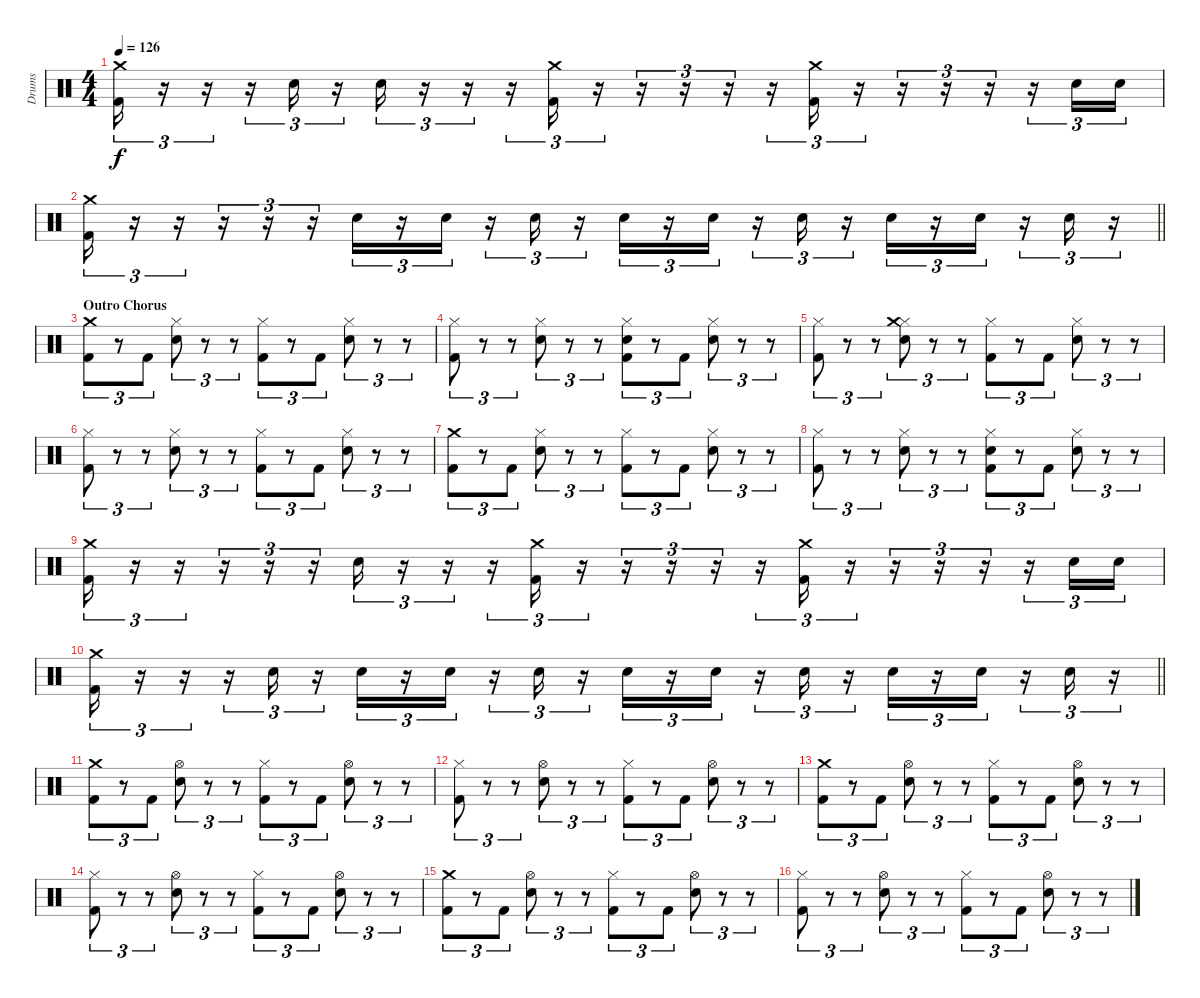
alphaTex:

\track ("Drums" "Drums") {instrument percussion}
\staff {score}
\articulation defaults
\ts (4 4)
\tempo 126
\clef neutral
\ks c
("Crash medium (hit)" "Kick (hit) 2").16{tu (3 2) dy f} r.16{tu (3 2)} r.16{tu (3 2)} r.16{tu (3 2)} "Snare (hit) 2".16{tu (3 2)} r.16{tu (3 2)} "Snare (hit) 2".16{tu (3 2)} r.16{tu (3 2)} r.16{tu (3 2)} r.16{tu (3 2)} ("Crash medium (hit)" "Kick (hit) 2").16{tu (3 2)} r.16{tu (3 2)} r.16{tu (3 2)} r.16{tu (3 2)} r.16{tu (3 2)} r.16{tu (3 2)} ("Crash medium (hit)" "Kick (hit) 2").16{tu (3 2)} r.16{tu (3 2)} r.16{tu (3 2)} r.16{tu (3 2)} r.16{tu (3 2)} r.16{tu (3 2)} "Snare (hit) 2".16{tu (3 2)} "Snare (hit) 2".16{tu (3 2)} |
\barLineRight lightlight
("Crash medium (hit)" "Kick (hit) 2").16{tu (3 2)} r.16{tu (3 2)} r.16{tu (3 2)} r.16{tu (3 2)} r.16{tu (3 2)} r.16{tu (3 2)} "Snare (hit) 2".16{tu (3 2)} r.16{tu (3 2)} "Snare (hit) 2".16{tu (3 2)} r.16{tu (3 2)} "Snare (hit) 2".16{tu (3 2)} r.16{tu (3 2)} "Snare (hit) 2".16{tu (3 2)} r.16{tu (3 2)} "Snare (hit) 2".16{tu (3 2)} r.16{tu (3 2)} "Snare (hit) 2".16{tu (3 2)} r.16{tu (3 2)} "Snare (hit) 2".16{tu (3 2)} r.16{tu (3 2)} "Snare (hit) 2".16{tu (3 2)} r.16{tu (3 2)} "Snare (hit) 2".16{tu (3 2)} r.16{tu (3 2)} |
\section ("" "Outro Chorus")
("Crash medium (hit)" "Kick (hit) 2").8{tu (3 2)} r.8{tu (3 2)} "Kick (hit) 2".8{tu (3 2)} ("Hi-Hat (closed)" "Snare (hit) 2").8{tu (3 2)} r.8{tu (3 2)} r.8{tu (3 2)} ("Hi-Hat (closed)" "Kick (hit) 2").8{tu (3 2)} r.8{tu (3 2)} "Kick (hit) 2".8{tu (3 2)} ("Hi-Hat (closed)" "Snare (hit) 2").8{tu (3 2)} r.8{tu (3 2)} r.8{tu (3 2)} |
("Hi-Hat (closed)" "Kick (hit) 2").8{tu (3 2)} r.8{tu (3 2)} r.8{tu (3 2)} ("Hi-Hat (closed)" "Snare (hit) 2").8{tu (3 2)} r.8{tu (3 2)} r.8{tu (3 2)} ("Hi-Hat (closed)" "Snare (hit) 2" "Kick (hit) 2").8{tu (3 2)} r.8{tu (3 2)} "Kick (hit) 2".8{tu (3 2)} ("Hi-Hat (closed)" "Snare (hit) 2").8{tu (3 2)} r.8{tu (3 2)} r.8{tu (3 2)} |
("Hi-Hat (closed)" "Kick (hit) 2").8{tu (3 2)} r.8{tu (3 2)} r.8{tu (3 2)} ("Hi-Hat (closed)" "Crash medium (hit)" "Snare (hit) 2").8{tu (3 2)} r.8{tu (3 2)} r.8{tu (3 2)} ("Hi-Hat (closed)" "Kick (hit) 2").8{tu (3 2)} r.8{tu (3 2)} "Kick (hit) 2".8{tu (3 2)} ("Hi-Hat (closed)" "Snare (hit) 2").8{tu (3 2)} r.8{tu (3 2)} r.8{tu (3 2)} |
("Hi-Hat (closed)" "Kick (hit) 2").8{tu (3 2)} r.8{tu (3 2)} r.8{tu (3 2)} ("Hi-Hat (closed)" "Snare (hit) 2").8{tu (3 2)} r.8{tu (3 2)} r.8{tu (3 2)} ("Hi-Hat (closed)" "Kick (hit) 2").8{tu (3 2)} r.8{tu (3 2)} "Kick (hit) 2".8{tu (3 2)} ("Hi-Hat (closed)" "Snare (hit) 2").8{tu (3 2)} r.8{tu (3 2)} r.8{tu (3 2)} |
("Crash medium (hit)" "Kick (hit) 2").8{tu (3 2)} r.8{tu (3 2)} "Kick (hit) 2".8{tu (3 2)} ("Hi-Hat (closed)" "Snare (hit) 2").8{tu (3 2)} r.8{tu (3 2)} r.8{tu (3 2)} ("Hi-Hat (closed)" "Kick (hit) 2").8{tu (3 2)} r.8{tu (3 2)} "Kick (hit) 2".8{tu (3 2)} ("Hi-Hat (closed)" "Snare (hit) 2").8{tu (3 2)} r.8{tu (3 2)} r.8{tu (3 2)} |
("Hi-Hat (closed)" "Kick (hit) 2").8{tu (3 2)} r.8{tu (3 2)} r.8{tu (3 2)} ("Hi-Hat (closed)" "Snare (hit) 2").8{tu (3 2)} r.8{tu (3 2)} r.8{tu (3 2)} ("Hi-Hat (closed)" "Snare (hit) 2" "Kick (hit) 2").8{tu (3 2)} r.8{tu (3 2)} "Kick (hit) 2".8{tu (3 2)} ("Hi-Hat (closed)" "Snare (hit) 2").8{tu (3 2)} r.8{tu (3 2)} r.8{tu (3 2)} |
("Crash medium (hit)" "Kick (hit) 2").16{tu (3 2)} r.16{tu (3 2)} r.16{tu (3 2)} r.16{tu (3 2)} r.16{tu (3 2)} r.16{tu (3 2)} "Snare (hit) 2".16{tu (3 2)} r.16{tu (3 2)} r.16{tu (3 2)} r.16{tu (3 2)} ("Crash medium (hit)" "Kick (hit) 2").16{tu (3 2)} r.16{tu (3 2)} r.16{tu (3 2)} r.16{tu (3 2)} r.16{tu (3 2)} r.16{tu (3 2)} ("Crash medium (hit)" "Kick (hit) 2").16{tu (3 2)} r.16{tu (3 2)} r.16{tu (3 2)} r.16{tu (3 2)} r.16{tu (3 2)} r.16{tu (3 2)} "Snare (hit) 2".16{tu (3 2)} "Snare (hit) 2".16{tu (3 2)} |
\barLineRight lightlight
("Crash medium (hit)" "Kick (hit) 2").16{tu (3 2)} r.16{tu (3 2)} r.16{tu (3 2)} r.16{tu (3 2)} "Snare (hit) 2".16{tu (3 2)} r.16{tu (3 2)} "Snare (hit) 2".16{tu (3 2)} r.16{tu (3 2)} "Snare (hit) 2".16{tu (3 2)} r.16{tu (3 2)} "Snare (hit) 2".16{tu (3 2)} r.16{tu (3 2)} "Snare (hit) 2".16{tu (3 2)} r.16{tu (3 2)} "Snare (hit) 2".16{tu (3 2)} r.16{tu (3 2)} "Snare (hit) 2".16{tu (3 2)} r.16{tu (3 2)} "Snare (hit) 2".16{tu (3 2)} r.16{tu (3 2)} "Snare (hit) 2".16{tu (3 2)} r.16{tu (3 2)} "Snare (hit) 2".16{tu (3 2)} r.16{tu (3 2)} |
("Crash medium (hit)" "Kick (hit) 2").8{tu (3 2)} r.8{tu (3 2)} "Kick (hit) 2".8{tu (3 2)} ("Hi-Hat (open)" "Snare (hit) 2").8{tu (3 2)} r.8{tu (3 2)} r.8{tu (3 2)} ("Hi-Hat (closed)" "Kick (hit) 2").8{tu (3 2)} r.8{tu (3 2)} "Kick (hit) 2".8{tu (3 2)} ("Hi-Hat (open)" "Snare (hit) 2").8{tu (3 2)} r.8{tu (3 2)} r.8{tu (3 2)} |
("Hi-Hat (closed)" "Kick (hit) 2").8{tu (3 2)} r.8{tu (3 2)} r.8{tu (3 2)} ("Hi-Hat (open)" "Snare (hit) 2").8{tu (3 2)} r.8{tu (3 2)} r.8{tu (3 2)} ("Hi-Hat (closed)" "Kick (hit) 2").8{tu (3 2)} r.8{tu (3 2)} "Kick (hit) 2".8{tu (3 2)} ("Hi-Hat (open)" "Snare (hit) 2").8{tu (3 2)} r.8{tu (3 2)} r.8{tu (3 2)} |
("Crash medium (hit)" "Kick (hit) 2").8{tu (3 2)} r.8{tu (3 2)} "Kick (hit) 2".8{tu (3 2)} ("Hi-Hat (open)" "Snare (hit) 2").8{tu (3 2)} r.8{tu (3 2)} r.8{tu (3 2)} ("Hi-Hat (closed)" "Kick (hit) 2").8{tu (3 2)} r.8{tu (3 2)} "Kick (hit) 2".8{tu (3 2)} ("Hi-Hat (open)" "Snare (hit) 2").8{tu (3 2)} r.8{tu (3 2)} r.8{tu (3 2)} |
("Hi-Hat (closed)" "Kick (hit) 2").8{tu (3 2)} r.8{tu (3 2)} r.8{tu (3 2)} ("Hi-Hat (open)" "Snare (hit) 2").8{tu (3 2)} r.8{tu (3 2)} r.8{tu (3 2)} ("Hi-Hat (closed)" "Kick (hit) 2").8{tu (3 2)} r.8{tu (3 2)} "Kick (hit) 2".8{tu (3 2)} ("Hi-Hat (open)" "Snare (hit) 2").8{tu (3 2)} r.8{tu (3 2)} r.8{tu (3 2)} |
("Crash medium (hit)" "Kick (hit) 2").8{tu (3 2)} r.8{tu (3 2)} "Kick (hit) 2".8{tu (3 2)} ("Hi-Hat (open)" "Snare (hit) 2").8{tu (3 2)} r.8{tu (3 2)} r.8{tu (3 2)} ("Hi-Hat (closed)" "Kick (hit) 2").8{tu (3 2)} r.8{tu (3 2)} "Kick (hit) 2".8{tu (3 2)} ("Hi-Hat (open)" "Snare (hit) 2").8{tu (3 2)} r.8{tu (3 2)} r.8{tu (3 2)} |
("Hi-Hat (closed)" "Kick (hit) 2").8{tu (3 2)} r.8{tu (3 2)} r.8{tu (3 2)} ("Hi-Hat (open)" "Snare (hit) 2").8{tu (3 2)} r.8{tu (3 2)} r.8{tu (3 2)} ("Hi-Hat (closed)" "Kick (hit) 2").8{tu (3 2)} r.8{tu (3 2)} "Kick (hit) 2".8{tu (3 2)} ("Hi-Hat (open)" "Snare (hit) 2").8{tu (3 2)} r.8{tu (3 2)} r.8{tu (3 2)}
